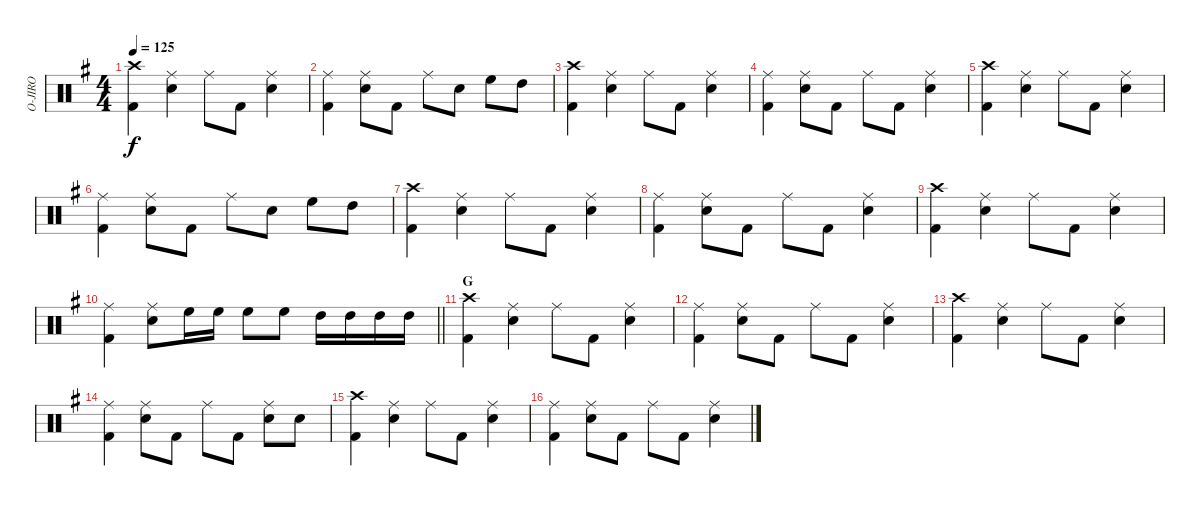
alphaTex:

\track ("O-JIRO" "O-JIRO") {instrument percussion}
\staff {score}
\articulation defaults
\ts (4 4)
\tempo 125
\clef neutral
\ks g
("Crash high (hit)" "Kick (hit) 2").4{dy f} ("Ride (middle)" "Snare (hit) 2").4 "Ride (middle)".8 "Kick (hit) 2".8 ("Ride (middle)" "Snare (hit) 2").4 |
("Ride (middle)" "Kick (hit) 2").4 ("Ride (middle)" "Snare (hit) 2").8 "Kick (hit) 2".8 "Ride (middle)".8 "Snare (hit) 2".8 "High Floor Tom (hit)".8 "High Tom (hit)".8 |
("Crash high (hit)" "Kick (hit) 2").4 ("Ride (middle)" "Snare (hit) 2").4 "Ride (middle)".8 "Kick (hit) 2".8 ("Ride (middle)" "Snare (hit) 2").4 |
("Ride (middle)" "Kick (hit) 2").4 ("Ride (middle)" "Snare (hit) 2").8 "Kick (hit) 2".8 "Ride (middle)".8 "Kick (hit) 2".8 ("Ride (middle)" "Snare (hit) 2").4 |
("Crash high (hit)" "Kick (hit) 2").4 ("Ride (middle)" "Snare (hit) 2").4 "Ride (middle)".8 "Kick (hit) 2".8 ("Ride (middle)" "Snare (hit) 2").4 |
("Ride (middle)" "Kick (hit) 2").4 ("Ride (middle)" "Snare (hit) 2").8 "Kick (hit) 2".8 "Ride (middle)".8 "Snare (hit) 2".8 "High Floor Tom (hit)".8 "High Tom (hit)".8 |
("Crash high (hit)" "Kick (hit) 2").4 ("Ride (middle)" "Snare (hit) 2").4 "Ride (middle)".8 "Kick (hit) 2".8 ("Ride (middle)" "Snare (hit) 2").4 |
("Ride (middle)" "Kick (hit) 2").4 ("Ride (middle)" "Snare (hit) 2").8 "Kick (hit) 2".8 "Ride (middle)".8 "Kick (hit) 2".8 ("Ride (middle)" "Snare (hit) 2").4 |
("Crash high (hit)" "Kick (hit) 2").4 ("Ride (middle)" "Snare (hit) 2").4 "Ride (middle)".8 "Kick (hit) 2".8 ("Ride (middle)" "Snare (hit) 2").4 |
\barLineRight lightlight
("Ride (middle)" "Kick (hit) 2").4 ("Ride (middle)" "Snare (hit) 2").8 "High Floor Tom (hit)".16 "High Floor Tom (hit)".16 "High Floor Tom (hit)".8 "High Floor Tom (hit)".8 "High Tom (hit)".16 "High Tom (hit)".16 "High Tom (hit)".16 "High Tom (hit)".16 |
\section ("" "G")
("Crash high (hit)" "Kick (hit) 2").4 ("Ride (middle)" "Snare (hit) 2").4 "Ride (middle)".8 "Kick (hit) 2".8 ("Ride (middle)" "Snare (hit) 2").4 |
("Ride (middle)" "Kick (hit) 2").4 ("Ride (middle)" "Snare (hit) 2").8 "Kick (hit) 2".8 "Ride (middle)".8 "Kick (hit) 2".8 ("Ride (middle)" "Snare (hit) 2").4 |
("Crash high (hit)" "Kick (hit) 2").4 ("Ride (middle)" "Snare (hit) 2").4 "Ride (middle)".8 "Kick (hit) 2".8 ("Ride (middle)" "Snare (hit) 2").4 |
("Ride (middle)" "Kick (hit) 2").4 ("Ride (middle)" "Snare (hit) 2").8 "Kick (hit) 2".8 "Ride (middle)".8 "Kick (hit) 2".8 ("Ride (middle)" "Snare (hit) 2").8 "Snare (hit) 2".8 |
("Crash high (hit)" "Kick (hit) 2").4 ("Ride (middle)" "Snare (hit) 2").4 "Ride (middle)".8 "Kick (hit) 2".8 ("Ride (middle)" "Snare (hit) 2").4 |
("Ride (middle)" "Kick (hit) 2").4 ("Ride (middle)" "Snare (hit) 2").8 "Kick (hit) 2".8 "Ride (middle)".8 "Kick (hit) 2".8 ("Ride (middle)" "Snare (hit) 2").4
